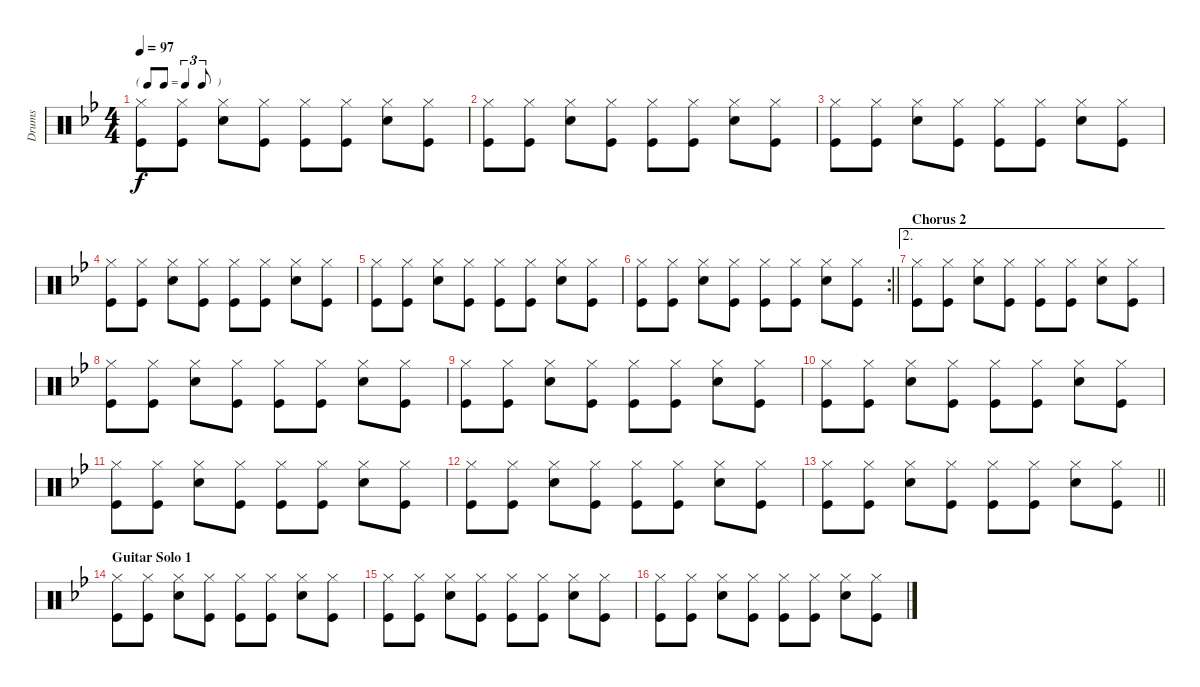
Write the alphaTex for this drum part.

\track ("Drums" "Drums") {instrument percussion}
\staff {score}
\articulation defaults
\ts (4 4)
\tf triplet8th
\tempo 97
\clef neutral
\ks bb
("Kick (hit)" "Hi-Hat (closed)").8{dy f} ("Kick (hit)" "Hi-Hat (closed)").8 ("Snare (hit) 2" "Hi-Hat (closed)").8 ("Kick (hit)" "Hi-Hat (closed)").8 ("Kick (hit)" "Hi-Hat (closed)").8 ("Kick (hit)" "Hi-Hat (closed)").8 ("Snare (hit) 2" "Hi-Hat (closed)").8 ("Kick (hit)" "Hi-Hat (closed)").8 |
("Kick (hit)" "Hi-Hat (closed)").8 ("Kick (hit)" "Hi-Hat (closed)").8 ("Snare (hit) 2" "Hi-Hat (closed)").8 ("Kick (hit)" "Hi-Hat (closed)").8 ("Kick (hit)" "Hi-Hat (closed)").8 ("Kick (hit)" "Hi-Hat (closed)").8 ("Snare (hit) 2" "Hi-Hat (closed)").8 ("Kick (hit)" "Hi-Hat (closed)").8 |
("Kick (hit)" "Hi-Hat (closed)").8 ("Kick (hit)" "Hi-Hat (closed)").8 ("Snare (hit) 2" "Hi-Hat (closed)").8 ("Kick (hit)" "Hi-Hat (closed)").8 ("Kick (hit)" "Hi-Hat (closed)").8 ("Kick (hit)" "Hi-Hat (closed)").8 ("Snare (hit) 2" "Hi-Hat (closed)").8 ("Kick (hit)" "Hi-Hat (closed)").8 |
("Kick (hit)" "Hi-Hat (closed)").8 ("Kick (hit)" "Hi-Hat (closed)").8 ("Snare (hit) 2" "Hi-Hat (closed)").8 ("Kick (hit)" "Hi-Hat (closed)").8 ("Kick (hit)" "Hi-Hat (closed)").8 ("Kick (hit)" "Hi-Hat (closed)").8 ("Snare (hit) 2" "Hi-Hat (closed)").8 ("Kick (hit)" "Hi-Hat (closed)").8 |
("Kick (hit)" "Hi-Hat (closed)").8 ("Kick (hit)" "Hi-Hat (closed)").8 ("Snare (hit) 2" "Hi-Hat (closed)").8 ("Kick (hit)" "Hi-Hat (closed)").8 ("Kick (hit)" "Hi-Hat (closed)").8 ("Kick (hit)" "Hi-Hat (closed)").8 ("Snare (hit) 2" "Hi-Hat (closed)").8 ("Kick (hit)" "Hi-Hat (closed)").8 |
\rc 2
\barLineRight lightlight
("Kick (hit)" "Hi-Hat (closed)").8 ("Kick (hit)" "Hi-Hat (closed)").8 ("Snare (hit) 2" "Hi-Hat (closed)").8 ("Kick (hit)" "Hi-Hat (closed)").8 ("Kick (hit)" "Hi-Hat (closed)").8 ("Kick (hit)" "Hi-Hat (closed)").8 ("Snare (hit) 2" "Hi-Hat (closed)").8 ("Kick (hit)" "Hi-Hat (closed)").8 |
\ae 2
\section ("" "Chorus 2")
("Kick (hit)" "Hi-Hat (closed)").8 ("Kick (hit)" "Hi-Hat (closed)").8 ("Snare (hit) 2" "Hi-Hat (closed)").8 ("Kick (hit)" "Hi-Hat (closed)").8 ("Kick (hit)" "Hi-Hat (closed)").8 ("Kick (hit)" "Hi-Hat (closed)").8 ("Snare (hit) 2" "Hi-Hat (closed)").8 ("Kick (hit)" "Hi-Hat (closed)").8 |
("Kick (hit)" "Hi-Hat (closed)").8 ("Kick (hit)" "Hi-Hat (closed)").8 ("Snare (hit) 2" "Hi-Hat (closed)").8 ("Kick (hit)" "Hi-Hat (closed)").8 ("Kick (hit)" "Hi-Hat (closed)").8 ("Kick (hit)" "Hi-Hat (closed)").8 ("Snare (hit) 2" "Hi-Hat (closed)").8 ("Kick (hit)" "Hi-Hat (closed)").8 |
("Kick (hit)" "Hi-Hat (closed)").8 ("Kick (hit)" "Hi-Hat (closed)").8 ("Snare (hit) 2" "Hi-Hat (closed)").8 ("Kick (hit)" "Hi-Hat (closed)").8 ("Kick (hit)" "Hi-Hat (closed)").8 ("Kick (hit)" "Hi-Hat (closed)").8 ("Snare (hit) 2" "Hi-Hat (closed)").8 ("Kick (hit)" "Hi-Hat (closed)").8 |
("Kick (hit)" "Hi-Hat (closed)").8 ("Kick (hit)" "Hi-Hat (closed)").8 ("Snare (hit) 2" "Hi-Hat (closed)").8 ("Kick (hit)" "Hi-Hat (closed)").8 ("Kick (hit)" "Hi-Hat (closed)").8 ("Kick (hit)" "Hi-Hat (closed)").8 ("Snare (hit) 2" "Hi-Hat (closed)").8 ("Kick (hit)" "Hi-Hat (closed)").8 |
("Kick (hit)" "Hi-Hat (closed)").8 ("Kick (hit)" "Hi-Hat (closed)").8 ("Snare (hit) 2" "Hi-Hat (closed)").8 ("Kick (hit)" "Hi-Hat (closed)").8 ("Kick (hit)" "Hi-Hat (closed)").8 ("Kick (hit)" "Hi-Hat (closed)").8 ("Snare (hit) 2" "Hi-Hat (closed)").8 ("Kick (hit)" "Hi-Hat (closed)").8 |
("Kick (hit)" "Hi-Hat (closed)").8 ("Kick (hit)" "Hi-Hat (closed)").8 ("Snare (hit) 2" "Hi-Hat (closed)").8 ("Kick (hit)" "Hi-Hat (closed)").8 ("Kick (hit)" "Hi-Hat (closed)").8 ("Kick (hit)" "Hi-Hat (closed)").8 ("Snare (hit) 2" "Hi-Hat (closed)").8 ("Kick (hit)" "Hi-Hat (closed)").8 |
\barLineRight lightlight
("Kick (hit)" "Hi-Hat (closed)").8 ("Kick (hit)" "Hi-Hat (closed)").8 ("Snare (hit) 2" "Hi-Hat (closed)").8 ("Kick (hit)" "Hi-Hat (closed)").8 ("Kick (hit)" "Hi-Hat (closed)").8 ("Kick (hit)" "Hi-Hat (closed)").8 ("Snare (hit) 2" "Hi-Hat (closed)").8 ("Kick (hit)" "Hi-Hat (closed)").8 |
\section ("" "Guitar Solo 1")
("Kick (hit)" "Hi-Hat (closed)").8{volume 9} ("Kick (hit)" "Hi-Hat (closed)").8 ("Snare (hit) 2" "Hi-Hat (closed)").8 ("Kick (hit)" "Hi-Hat (closed)").8 ("Kick (hit)" "Hi-Hat (closed)").8 ("Kick (hit)" "Hi-Hat (closed)").8 ("Snare (hit) 2" "Hi-Hat (closed)").8 ("Kick (hit)" "Hi-Hat (closed)").8 |
("Kick (hit)" "Hi-Hat (closed)").8 ("Kick (hit)" "Hi-Hat (closed)").8 ("Snare (hit) 2" "Hi-Hat (closed)").8 ("Kick (hit)" "Hi-Hat (closed)").8 ("Kick (hit)" "Hi-Hat (closed)").8 ("Kick (hit)" "Hi-Hat (closed)").8 ("Snare (hit) 2" "Hi-Hat (closed)").8 ("Kick (hit)" "Hi-Hat (closed)").8 |
("Kick (hit)" "Hi-Hat (closed)").8 ("Kick (hit)" "Hi-Hat (closed)").8 ("Snare (hit) 2" "Hi-Hat (closed)").8 ("Kick (hit)" "Hi-Hat (closed)").8 ("Kick (hit)" "Hi-Hat (closed)").8 ("Kick (hit)" "Hi-Hat (closed)").8 ("Snare (hit) 2" "Hi-Hat (closed)").8 ("Kick (hit)" "Hi-Hat (closed)").8
